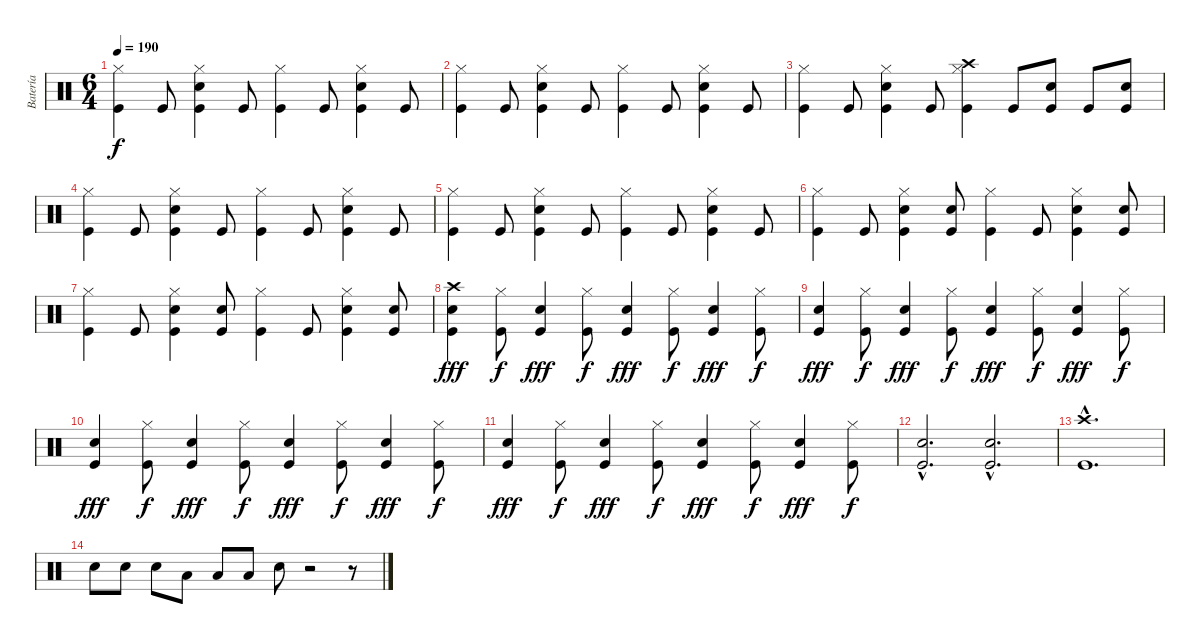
\track ("Batería" "Batería") {instrument percussion}
\staff {score}
\articulation defaults
\ts (6 4)
\tempo 190
\clef neutral
\ks c
("Hi-Hat (closed)" "Kick (hit)").4{dy f} "Kick (hit)".8 ("Kick (hit)" "Hi-Hat (closed)" "Snare (hit) 2").4 "Kick (hit)".8 ("Hi-Hat (closed)" "Kick (hit)").4 "Kick (hit)".8 ("Kick (hit)" "Hi-Hat (closed)" "Snare (hit) 2").4 "Kick (hit)".8 |
("Hi-Hat (closed)" "Kick (hit)").4 "Kick (hit)".8 ("Kick (hit)" "Hi-Hat (closed)" "Snare (hit) 2").4 "Kick (hit)".8 ("Hi-Hat (closed)" "Kick (hit)").4 "Kick (hit)".8 ("Kick (hit)" "Hi-Hat (closed)" "Snare (hit) 2").4 "Kick (hit)".8 |
("Hi-Hat (closed)" "Kick (hit)").4 "Kick (hit)".8 ("Kick (hit)" "Hi-Hat (closed)" "Snare (hit) 2").4 "Kick (hit)".8 ("Crash high (hit)" "Hi-Hat (closed)" "Kick (hit)").4 "Kick (hit)".8 ("Kick (hit)" "Snare (hit) 2").8 "Kick (hit)".8 ("Kick (hit)" "Snare (hit) 2").8 |
("Hi-Hat (closed)" "Kick (hit)").4 "Kick (hit)".8 ("Kick (hit)" "Hi-Hat (closed)" "Snare (hit) 2").4 "Kick (hit)".8 ("Hi-Hat (closed)" "Kick (hit)").4 "Kick (hit)".8 ("Kick (hit)" "Hi-Hat (closed)" "Snare (hit) 2").4 "Kick (hit)".8 |
("Hi-Hat (closed)" "Kick (hit)").4 "Kick (hit)".8 ("Kick (hit)" "Hi-Hat (closed)" "Snare (hit) 2").4 "Kick (hit)".8 ("Hi-Hat (closed)" "Kick (hit)").4 "Kick (hit)".8 ("Kick (hit)" "Hi-Hat (closed)" "Snare (hit) 2").4 "Kick (hit)".8 |
("Hi-Hat (closed)" "Kick (hit)").4 "Kick (hit)".8 ("Kick (hit)" "Hi-Hat (closed)" "Snare (hit) 2").4 ("Snare (hit) 2" "Kick (hit)").8 ("Hi-Hat (closed)" "Kick (hit)").4 "Kick (hit)".8 ("Kick (hit)" "Hi-Hat (closed)" "Snare (hit) 2").4 ("Snare (hit) 2" "Kick (hit)").8 |
("Hi-Hat (closed)" "Kick (hit)").4 "Kick (hit)".8 ("Kick (hit)" "Hi-Hat (closed)" "Snare (hit) 2").4 ("Snare (hit) 2" "Kick (hit)").8 ("Hi-Hat (closed)" "Kick (hit)").4 "Kick (hit)".8 ("Kick (hit)" "Hi-Hat (closed)" "Snare (hit) 2").4 ("Snare (hit) 2" "Kick (hit)").8 |
("Crash high (hit)" "Snare (hit) 2" "Kick (hit)").4{dy fff} ("Hi-Hat (closed)" "Kick (hit)").8{dy f} ("Kick (hit)" "Snare (hit) 2").4{dy fff} ("Hi-Hat (closed)" "Kick (hit)").8{dy f} ("Snare (hit) 2" "Kick (hit)").4{dy fff} ("Hi-Hat (closed)" "Kick (hit)").8{dy f} ("Kick (hit)" "Snare (hit) 2").4{dy fff} ("Hi-Hat (closed)" "Kick (hit)").8{dy f} |
("Snare (hit) 2" "Kick (hit)").4{dy fff} ("Hi-Hat (closed)" "Kick (hit)").8{dy f} ("Kick (hit)" "Snare (hit) 2").4{dy fff} ("Hi-Hat (closed)" "Kick (hit)").8{dy f} ("Snare (hit) 2" "Kick (hit)").4{dy fff} ("Hi-Hat (closed)" "Kick (hit)").8{dy f} ("Kick (hit)" "Snare (hit) 2").4{dy fff} ("Hi-Hat (closed)" "Kick (hit)").8{dy f} |
("Snare (hit) 2" "Kick (hit)").4{dy fff} ("Hi-Hat (closed)" "Kick (hit)").8{dy f} ("Kick (hit)" "Snare (hit) 2").4{dy fff} ("Hi-Hat (closed)" "Kick (hit)").8{dy f} ("Snare (hit) 2" "Kick (hit)").4{dy fff} ("Hi-Hat (closed)" "Kick (hit)").8{dy f} ("Kick (hit)" "Snare (hit) 2").4{dy fff} ("Hi-Hat (closed)" "Kick (hit)").8{dy f} |
("Snare (hit) 2" "Kick (hit)").4{dy fff} ("Hi-Hat (closed)" "Kick (hit)").8{dy f} ("Kick (hit)" "Snare (hit) 2").4{dy fff} ("Hi-Hat (closed)" "Kick (hit)").8{dy f} ("Snare (hit) 2" "Kick (hit)").4{dy fff} ("Hi-Hat (closed)" "Kick (hit)").8{dy f} ("Kick (hit)" "Snare (hit) 2").4{dy fff} ("Hi-Hat (closed)" "Kick (hit)").8{dy f} |
("Kick (hit)"{hac} "Snare (hit) 2"{hac}).2{d} ("Kick (hit)"{hac} "Snare (hit) 2"{hac}).2{d} |
("Crash high (hit)"{hac} "Kick (hit)"{hac}).1{d} |
"Snare (hit) 2".8 "Snare (hit) 2".8 "Snare (hit) 2".8 "Low Tom (hit)".8 "Low Tom (hit)".8 "Low Tom (hit)".8 "Snare (hit) 2".8 r.2 r.8
